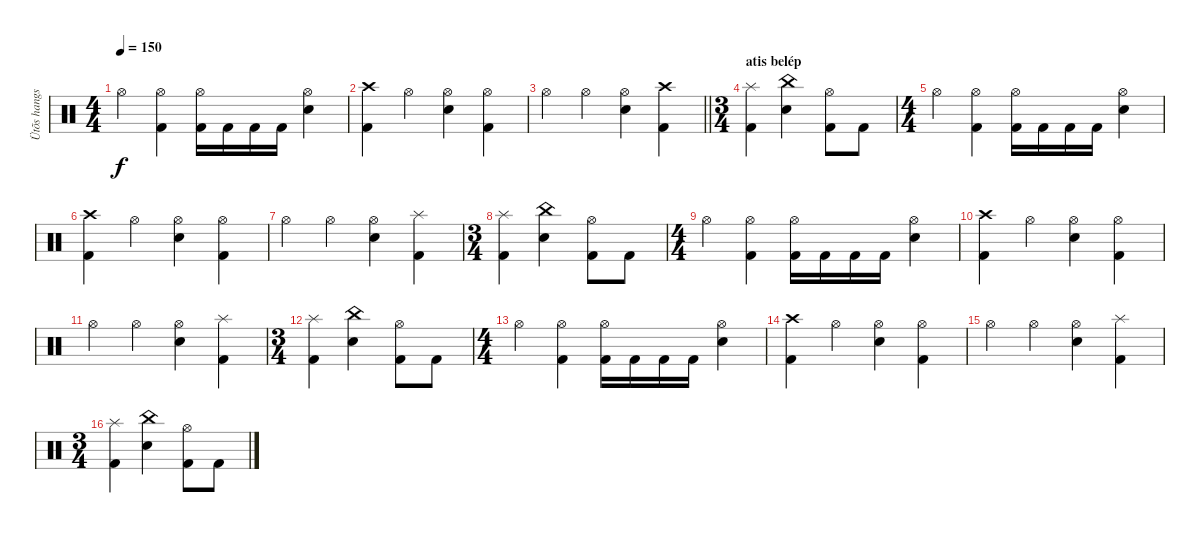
\track ("Ütõs hangszer" "Ütõs hangs") {instrument percussion}
\staff {score}
\articulation defaults
\ts (4 4)
\tempo 150
\clef neutral
\ks c "Hi-Hat (open)".4{dy f}
("Hi-Hat (open)" "Kick (hit) 2").4 ("Hi-Hat (open)" "Kick (hit) 2").16 "Kick (hit) 2".16 "Kick (hit) 2".16 "Kick (hit) 2".16 ("Hi-Hat (open)" "Electric Snare (hit)").4 |
("Crash high (hit)" "Kick (hit) 2").4 "Hi-Hat (open)".4 ("Hi-Hat (open)" "Electric Snare (hit)").4 ("Hi-Hat (open)" "Kick (hit) 2").4 |
\barLineRight lightlight "Hi-Hat (open)".4 "Hi-Hat (open)".4
("Hi-Hat (open)" "Electric Snare (hit)").4 ("Crash high (hit)" "Kick (hit) 2").4 |
\ts (3 4)
\section ("" "atis belép")
("Splash (hit)" "Kick (hit) 2").4 ("China (hit)" "Electric Snare (hit)").4 ("Hi-Hat (open)" "Kick (hit) 2").8 "Kick (hit) 2".8 |
\ts (4 4)
"Hi-Hat (open)".4 ("Hi-Hat (open)" "Kick (hit) 2").4 ("Hi-Hat (open)" "Kick (hit) 2").16 "Kick (hit) 2".16 "Kick (hit) 2".16 "Kick (hit) 2".16 ("Hi-Hat (open)" "Electric Snare (hit)").4 |
("Crash high (hit)" "Kick (hit) 2").4 "Hi-Hat (open)".4 ("Hi-Hat (open)" "Electric Snare (hit)").4 ("Hi-Hat (open)" "Kick (hit) 2").4 |
"Hi-Hat (open)".4 "Hi-Hat (open)".4 ("Hi-Hat (open)" "Electric Snare (hit)").4 ("Splash (hit)" "Kick (hit) 2").4 |
\ts (3 4)
("Splash (hit)" "Kick (hit) 2").4 ("China (hit)" "Electric Snare (hit)").4 ("Hi-Hat (open)" "Kick (hit) 2").8 "Kick (hit) 2".8 |
\ts (4 4)
"Hi-Hat (open)".4 ("Hi-Hat (open)" "Kick (hit) 2").4 ("Hi-Hat (open)" "Kick (hit) 2").16 "Kick (hit) 2".16 "Kick (hit) 2".16 "Kick (hit) 2".16 ("Hi-Hat (open)" "Electric Snare (hit)").4 |
("Crash high (hit)" "Kick (hit) 2").4 "Hi-Hat (open)".4 ("Hi-Hat (open)" "Electric Snare (hit)").4 ("Hi-Hat (open)" "Kick (hit) 2").4 |
"Hi-Hat (open)".4 "Hi-Hat (open)".4 ("Hi-Hat (open)" "Electric Snare (hit)").4 ("Splash (hit)" "Kick (hit) 2").4 |
\ts (3 4)
("Splash (hit)" "Kick (hit) 2").4 ("China (hit)" "Electric Snare (hit)").4 ("Hi-Hat (open)" "Kick (hit) 2").8 "Kick (hit) 2".8 |
\ts (4 4)
"Hi-Hat (open)".4 ("Hi-Hat (open)" "Kick (hit) 2").4 ("Hi-Hat (open)" "Kick (hit) 2").16 "Kick (hit) 2".16 "Kick (hit) 2".16 "Kick (hit) 2".16 ("Hi-Hat (open)" "Electric Snare (hit)").4 |
("Crash high (hit)" "Kick (hit) 2").4 "Hi-Hat (open)".4 ("Hi-Hat (open)" "Electric Snare (hit)").4 ("Hi-Hat (open)" "Kick (hit) 2").4 |
"Hi-Hat (open)".4 "Hi-Hat (open)".4 ("Hi-Hat (open)" "Electric Snare (hit)").4 ("Splash (hit)" "Kick (hit) 2").4 |
\ts (3 4)
("Splash (hit)" "Kick (hit) 2").4 ("China (hit)" "Electric Snare (hit)").4 ("Hi-Hat (open)" "Kick (hit) 2").8 "Kick (hit) 2".8
